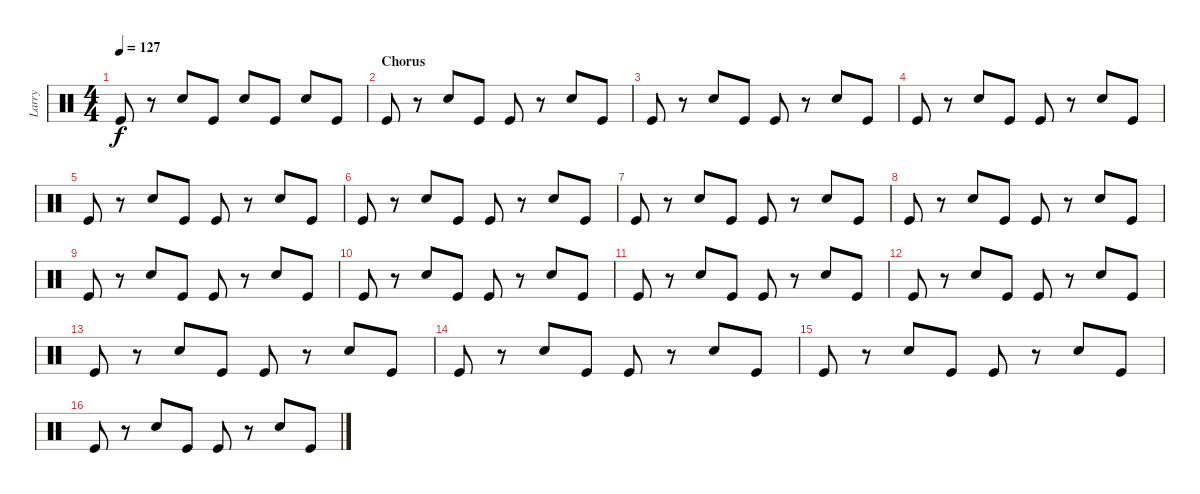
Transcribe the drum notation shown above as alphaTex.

\track ("Larry" "Larry") {instrument percussion}
\staff {score}
\articulation defaults
\ts (4 4)
\tempo 127
\clef neutral
\ks c "Kick (hit)".8{dy f}
r.8 "Snare (hit) 2".8 "Kick (hit)".8 "Snare (hit) 2".8 "Kick (hit)".8 "Snare (hit) 2".8 "Kick (hit)".8 |
\section ("" "Chorus")
"Kick (hit)".8 r.8 "Snare (hit) 2".8 "Kick (hit)".8 "Kick (hit)".8 r.8 "Snare (hit) 2".8 "Kick (hit)".8 |
"Kick (hit)".8 r.8 "Snare (hit) 2".8 "Kick (hit)".8 "Kick (hit)".8 r.8 "Snare (hit) 2".8 "Kick (hit)".8 |
"Kick (hit)".8 r.8 "Snare (hit) 2".8 "Kick (hit)".8 "Kick (hit)".8 r.8 "Snare (hit) 2".8 "Kick (hit)".8 |
"Kick (hit)".8 r.8 "Snare (hit) 2".8 "Kick (hit)".8 "Kick (hit)".8 r.8 "Snare (hit) 2".8 "Kick (hit)".8 |
"Kick (hit)".8 r.8 "Snare (hit) 2".8 "Kick (hit)".8 "Kick (hit)".8 r.8 "Snare (hit) 2".8 "Kick (hit)".8 |
"Kick (hit)".8 r.8 "Snare (hit) 2".8 "Kick (hit)".8 "Kick (hit)".8 r.8 "Snare (hit) 2".8 "Kick (hit)".8 |
"Kick (hit)".8 r.8 "Snare (hit) 2".8 "Kick (hit)".8 "Kick (hit)".8 r.8 "Snare (hit) 2".8 "Kick (hit)".8 |
"Kick (hit)".8 r.8 "Snare (hit) 2".8 "Kick (hit)".8 "Kick (hit)".8 r.8 "Snare (hit) 2".8 "Kick (hit)".8 |
"Kick (hit)".8 r.8 "Snare (hit) 2".8 "Kick (hit)".8 "Kick (hit)".8 r.8 "Snare (hit) 2".8 "Kick (hit)".8 |
"Kick (hit)".8 r.8 "Snare (hit) 2".8 "Kick (hit)".8 "Kick (hit)".8 r.8 "Snare (hit) 2".8 "Kick (hit)".8 |
"Kick (hit)".8 r.8 "Snare (hit) 2".8 "Kick (hit)".8 "Kick (hit)".8 r.8 "Snare (hit) 2".8 "Kick (hit)".8 |
"Kick (hit)".8 r.8 "Snare (hit) 2".8 "Kick (hit)".8 "Kick (hit)".8 r.8 "Snare (hit) 2".8 "Kick (hit)".8 |
"Kick (hit)".8 r.8 "Snare (hit) 2".8 "Kick (hit)".8 "Kick (hit)".8 r.8 "Snare (hit) 2".8 "Kick (hit)".8 |
"Kick (hit)".8 r.8 "Snare (hit) 2".8 "Kick (hit)".8 "Kick (hit)".8 r.8 "Snare (hit) 2".8 "Kick (hit)".8 |
"Kick (hit)".8 r.8 "Snare (hit) 2".8 "Kick (hit)".8 "Kick (hit)".8 r.8 "Snare (hit) 2".8 "Kick (hit)".8
